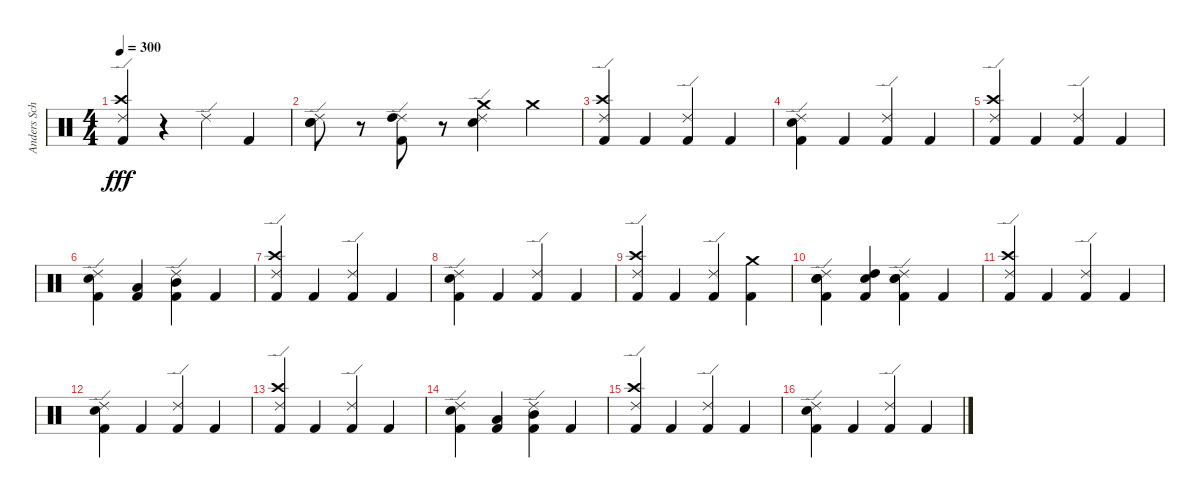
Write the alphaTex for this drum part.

\track ("Anders Schultz" "Anders Sch") {instrument percussion}
\staff {score}
\articulation defaults
\ts (4 4)
\tempo 300
\clef neutral
\ks c
("Ride (edge) 2" "Crash high (hit)" "Kick (hit) 2").4{dy fff} r.4 "Ride (edge) 2".4 "Kick (hit) 2".4 |
("Ride (edge) 2" "Snare (hit) 2" "Snare (hit) 2").8 r.8 ("Ride (edge) 2" "High Tom (hit)" "Kick (hit) 2").8 r.8 ("Ride (edge) 2" "Crash medium (hit)" "Snare (hit) 2").4 "Crash medium (hit)".4 |
("Ride (edge) 2" "Crash high (hit)" "Kick (hit) 2").4 "Kick (hit) 2".4 ("Ride (edge) 2" "Kick (hit) 2").4 "Kick (hit) 2".4 |
("Ride (edge) 2" "Snare (hit) 2" "Kick (hit) 2").4 "Kick (hit) 2".4 ("Ride (edge) 2" "Kick (hit) 2").4 "Kick (hit) 2".4 |
("Ride (edge) 2" "Crash high (hit)" "Kick (hit) 2").4 "Kick (hit) 2".4 ("Ride (edge) 2" "Kick (hit) 2").4 "Kick (hit) 2".4 |
("Ride (edge) 2" "Snare (hit) 2" "Kick (hit) 2").4 ("Low Tom (hit)" "Kick (hit) 2").4 ("Ride (edge) 2" "Mid Tom (hit)" "Kick (hit) 2").4 "Kick (hit) 2".4 |
("Ride (edge) 2" "Crash high (hit)" "Kick (hit) 2").4 "Kick (hit) 2".4 ("Ride (edge) 2" "Kick (hit) 2").4 "Kick (hit) 2".4 |
("Ride (edge) 2" "Snare (hit) 2" "Kick (hit) 2").4 "Kick (hit) 2".4 ("Ride (edge) 2" "Kick (hit) 2").4 "Kick (hit) 2".4 |
("Ride (edge) 2" "Crash high (hit)" "Kick (hit) 2").4 "Kick (hit) 2".4 ("Ride (edge) 2" "Kick (hit) 2").4 ("Crash medium (hit)" "Kick (hit) 2").4 |
("Ride (edge) 2" "Snare (hit) 2" "Snare (hit) 2" "Kick (hit) 2").4 ("Snare (hit) 2" "High Tom (hit)" "Kick (hit) 2").4 ("Ride (edge) 2" "Snare (hit) 2" "Snare (hit) 2" "Kick (hit) 2").4 "Kick (hit) 2".4 |
("Ride (edge) 2" "Crash high (hit)" "Kick (hit) 2").4 "Kick (hit) 2".4 ("Ride (edge) 2" "Kick (hit) 2").4 "Kick (hit) 2".4 |
("Ride (edge) 2" "Snare (hit) 2" "Kick (hit) 2").4 "Kick (hit) 2".4 ("Ride (edge) 2" "Kick (hit) 2").4 "Kick (hit) 2".4 |
("Ride (edge) 2" "Crash high (hit)" "Kick (hit) 2").4 "Kick (hit) 2".4 ("Ride (edge) 2" "Kick (hit) 2").4 "Kick (hit) 2".4 |
("Ride (edge) 2" "Snare (hit) 2" "Kick (hit) 2").4 ("Low Tom (hit)" "Kick (hit) 2").4 ("Ride (edge) 2" "Mid Tom (hit)" "Kick (hit) 2").4 "Kick (hit) 2".4 |
("Ride (edge) 2" "Crash high (hit)" "Kick (hit) 2").4 "Kick (hit) 2".4 ("Ride (edge) 2" "Kick (hit) 2").4 "Kick (hit) 2".4 |
("Ride (edge) 2" "Snare (hit) 2" "Kick (hit) 2").4 "Kick (hit) 2".4 ("Ride (edge) 2" "Kick (hit) 2").4 "Kick (hit) 2".4
